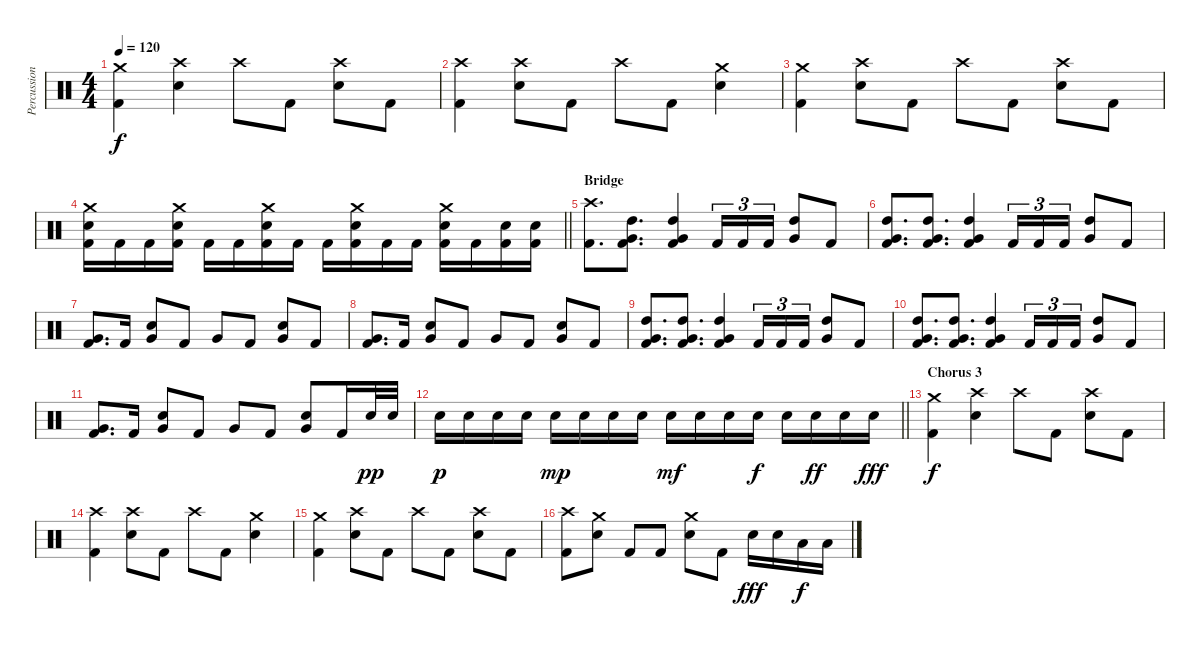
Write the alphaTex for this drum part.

\track ("Percussion" "Percussion") {instrument percussion}
\staff {score}
\articulation defaults
\ts (4 4)
\tempo 120
\clef neutral
\ks c
("Crash medium (hit)" "Kick (hit) 2").4{dy f} ("Crash high (hit)" "Snare (hit) 2").4 "Crash high (hit)".8 "Kick (hit) 2".8 ("Crash high (hit)" "Snare (hit) 2").8 "Kick (hit) 2".8 |
("Crash high (hit)" "Kick (hit) 2").4 ("Crash high (hit)" "Snare (hit) 2").8 "Kick (hit) 2".8 "Crash high (hit)".8 "Kick (hit) 2".8 ("Crash medium (hit)" "Snare (hit) 2").4 |
("Crash medium (hit)" "Kick (hit) 2").4 ("Crash high (hit)" "Snare (hit) 2").8 "Kick (hit) 2".8 "Crash high (hit)".8 "Kick (hit) 2".8 ("Crash high (hit)" "Snare (hit) 2").8 "Kick (hit) 2".8 |
\barLineRight lightlight
("Crash medium (hit)" "Snare (hit) 2" "Kick (hit) 2").16 "Kick (hit) 2".16 "Kick (hit) 2".16 ("Crash medium (hit)" "Snare (hit) 2" "Kick (hit) 2").16 "Kick (hit) 2".16 "Kick (hit) 2".16 ("Crash medium (hit)" "Snare (hit) 2" "Kick (hit) 2").16 "Kick (hit) 2".16 "Kick (hit) 2".16 ("Crash medium (hit)" "Snare (hit) 2" "Kick (hit) 2").16 "Kick (hit) 2".16 "Kick (hit) 2".16 ("Crash medium (hit)" "Snare (hit) 2" "Kick (hit) 2").16 "Kick (hit) 2".16 ("Snare (hit) 2" "Kick (hit) 2").16 ("Snare (hit) 2" "Kick (hit) 2").16 |
\section ("" "Bridge")
("Crash high (hit)" "Kick (hit) 2").8{d} ("High Tom (hit)" "Very Low Tom (hit)" "Kick (hit) 2").8{d} ("High Tom (hit)" "Very Low Tom (hit)" "Kick (hit) 2").4 "Kick (hit) 2".16{tu (3 2)} "Kick (hit) 2".16{tu (3 2)} "Kick (hit) 2".16{tu (3 2)} ("High Tom (hit)" "Very Low Tom (hit)").8 "Kick (hit) 2".8 |
("High Tom (hit)" "Very Low Tom (hit)" "Kick (hit) 2").8{d} ("High Tom (hit)" "Very Low Tom (hit)" "Kick (hit) 2").8{d} ("High Tom (hit)" "Very Low Tom (hit)" "Kick (hit) 2").4 "Kick (hit) 2".16{tu (3 2)} "Kick (hit) 2".16{tu (3 2)} "Kick (hit) 2".16{tu (3 2)} ("High Tom (hit)" "Very Low Tom (hit)").8 "Kick (hit) 2".8 |
("Very Low Tom (hit)" "Kick (hit) 2").8{d} "Kick (hit) 2".16 ("Very Low Tom (hit)" "Snare (hit) 2").8 "Kick (hit) 2".8 "Very Low Tom (hit)".8 "Kick (hit) 2".8 ("Very Low Tom (hit)" "Snare (hit) 2").8 "Kick (hit) 2".8 |
("Very Low Tom (hit)" "Kick (hit) 2").8{d} "Kick (hit) 2".16 ("Very Low Tom (hit)" "Snare (hit) 2").8 "Kick (hit) 2".8 "Very Low Tom (hit)".8 "Kick (hit) 2".8 ("Very Low Tom (hit)" "Snare (hit) 2").8 "Kick (hit) 2".8 |
("High Tom (hit)" "Very Low Tom (hit)" "Kick (hit) 2").8{d} ("High Tom (hit)" "Very Low Tom (hit)" "Kick (hit) 2").8{d} ("High Tom (hit)" "Very Low Tom (hit)" "Kick (hit) 2").4 "Kick (hit) 2".16{tu (3 2)} "Kick (hit) 2".16{tu (3 2)} "Kick (hit) 2".16{tu (3 2)} ("High Tom (hit)" "Very Low Tom (hit)").8 "Kick (hit) 2".8 |
("High Tom (hit)" "Very Low Tom (hit)" "Kick (hit) 2").8{d} ("High Tom (hit)" "Very Low Tom (hit)" "Kick (hit) 2").8{d} ("High Tom (hit)" "Very Low Tom (hit)" "Kick (hit) 2").4 "Kick (hit) 2".16{tu (3 2)} "Kick (hit) 2".16{tu (3 2)} "Kick (hit) 2".16{tu (3 2)} ("High Tom (hit)" "Very Low Tom (hit)").8 "Kick (hit) 2".8 |
("Very Low Tom (hit)" "Kick (hit) 2").8{d} "Kick (hit) 2".16 ("Very Low Tom (hit)" "Snare (hit) 2").8 "Kick (hit) 2".8 "Very Low Tom (hit)".8 "Kick (hit) 2".8 ("Very Low Tom (hit)" "Snare (hit) 2").8 "Kick (hit) 2".16 "Snare (hit) 2".32{dy pp} "Snare (hit) 2".32 |
\barLineRight lightlight "Snare (hit) 2".16{dy p} "Snare (hit) 2".16 "Snare (hit) 2".16 "Snare (hit) 2".16 "Snare (hit) 2".16{dy mp} "Snare (hit) 2".16 "Snare (hit) 2".16 "Snare (hit) 2".16 "Snare (hit) 2".16{dy mf} "Snare (hit) 2".16 "Snare (hit) 2".16 "Snare (hit) 2".16{dy f} "Snare (hit) 2".16 "Snare (hit) 2".16{dy ff} "Snare (hit) 2".16 "Snare (hit) 2".16{dy fff}
|
\section ("" "Chorus 3")
("Crash medium (hit)" "Kick (hit) 2").4{dy f} ("Crash high (hit)" "Snare (hit) 2").4 "Crash high (hit)".8 "Kick (hit) 2".8 ("Crash high (hit)" "Snare (hit) 2").8 "Kick (hit) 2".8 |
("Crash high (hit)" "Kick (hit) 2").4 ("Crash high (hit)" "Snare (hit) 2").8 "Kick (hit) 2".8 "Crash high (hit)".8 "Kick (hit) 2".8 ("Crash medium (hit)" "Snare (hit) 2").4 |
("Crash medium (hit)" "Kick (hit) 2").4 ("Crash high (hit)" "Snare (hit) 2").8 "Kick (hit) 2".8 "Crash high (hit)".8 "Kick (hit) 2".8 ("Crash high (hit)" "Snare (hit) 2").8 "Kick (hit) 2".8 |
("Crash high (hit)" "Kick (hit) 2").8 ("Crash medium (hit)" "Snare (hit) 2").8 "Kick (hit) 2".8 "Kick (hit) 2".8 ("Crash medium (hit)" "Snare (hit) 2").8 "Kick (hit) 2".8 "Snare (hit) 2".16{dy fff} "Snare (hit) 2".16 "Low Tom (hit)".16{dy f} "Low Tom (hit)".16
